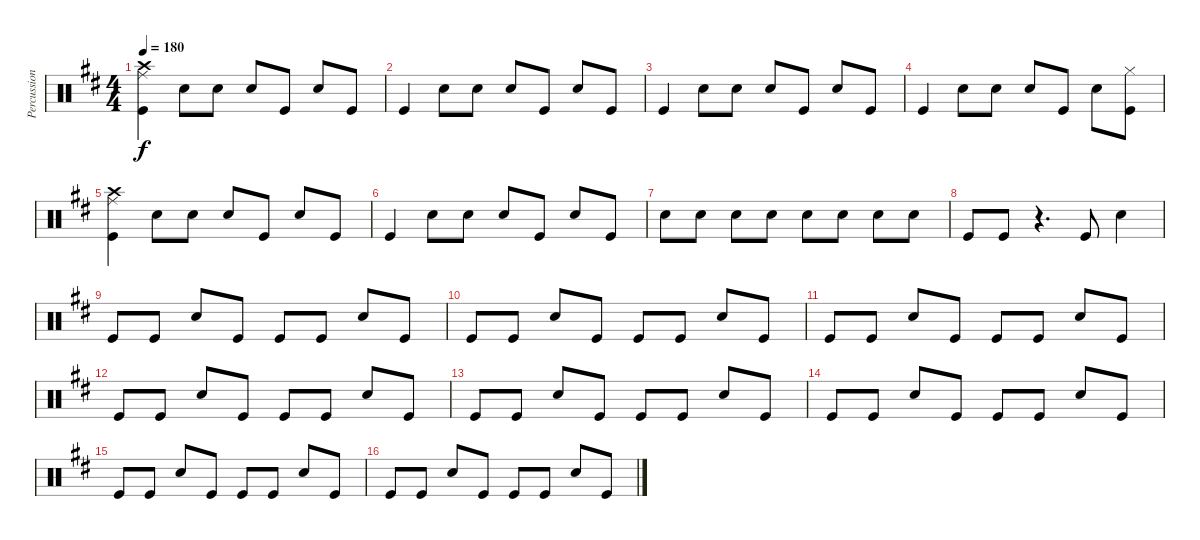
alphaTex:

\track ("Percussion" "Percussion") {instrument percussion}
\staff {score}
\articulation defaults
\ts (4 4)
\tempo 180
\clef neutral
\ks d
("Kick (hit)" "Crash high (hit)" "Ride (middle)").4{dy f} "Snare (hit) 2".8 "Snare (hit) 2".8 "Snare (hit) 2".8 "Kick (hit)".8 "Snare (hit) 2".8 "Kick (hit)".8 |
"Kick (hit)".4 "Snare (hit) 2".8 "Snare (hit) 2".8 "Snare (hit) 2".8 "Kick (hit)".8 "Snare (hit) 2".8 "Kick (hit)".8 |
"Kick (hit)".4 "Snare (hit) 2".8 "Snare (hit) 2".8 "Snare (hit) 2".8 "Kick (hit)".8 "Snare (hit) 2".8 "Kick (hit)".8 |
"Kick (hit)".4 "Snare (hit) 2".8 "Snare (hit) 2".8 "Snare (hit) 2".8 "Kick (hit)".8 "Snare (hit) 2".8 ("Kick (hit)" "Hi-Hat (closed)").8 |
("Kick (hit)" "Crash high (hit)" "Ride (middle)").4 "Snare (hit) 2".8 "Snare (hit) 2".8 "Snare (hit) 2".8 "Kick (hit)".8 "Snare (hit) 2".8 "Kick (hit)".8 |
"Kick (hit)".4 "Snare (hit) 2".8 "Snare (hit) 2".8 "Snare (hit) 2".8 "Kick (hit)".8 "Snare (hit) 2".8 "Kick (hit)".8 |
"Snare (hit) 2".8 "Snare (hit) 2".8 "Snare (hit) 2".8 "Snare (hit) 2".8 "Snare (hit) 2".8 "Snare (hit) 2".8 "Snare (hit) 2".8 "Snare (hit) 2".8 |
"Kick (hit)".8 "Kick (hit)".8 r.4{d} "Kick (hit)".8 "Snare (hit) 2".4 |
"Kick (hit)".8 "Kick (hit)".8 "Snare (hit) 2".8 "Kick (hit)".8 "Kick (hit)".8 "Kick (hit)".8 "Snare (hit) 2".8 "Kick (hit)".8 |
"Kick (hit)".8 "Kick (hit)".8 "Snare (hit) 2".8 "Kick (hit)".8 "Kick (hit)".8 "Kick (hit)".8 "Snare (hit) 2".8 "Kick (hit)".8 |
"Kick (hit)".8 "Kick (hit)".8 "Snare (hit) 2".8 "Kick (hit)".8 "Kick (hit)".8 "Kick (hit)".8 "Snare (hit) 2".8 "Kick (hit)".8 |
"Kick (hit)".8 "Kick (hit)".8 "Snare (hit) 2".8 "Kick (hit)".8 "Kick (hit)".8 "Kick (hit)".8 "Snare (hit) 2".8 "Kick (hit)".8 |
"Kick (hit)".8 "Kick (hit)".8 "Snare (hit) 2".8 "Kick (hit)".8 "Kick (hit)".8 "Kick (hit)".8 "Snare (hit) 2".8 "Kick (hit)".8 |
"Kick (hit)".8 "Kick (hit)".8 "Snare (hit) 2".8 "Kick (hit)".8 "Kick (hit)".8 "Kick (hit)".8 "Snare (hit) 2".8 "Kick (hit)".8 |
"Kick (hit)".8 "Kick (hit)".8 "Snare (hit) 2".8 "Kick (hit)".8 "Kick (hit)".8 "Kick (hit)".8 "Snare (hit) 2".8 "Kick (hit)".8 |
"Kick (hit)".8 "Kick (hit)".8 "Snare (hit) 2".8 "Kick (hit)".8 "Kick (hit)".8 "Kick (hit)".8 "Snare (hit) 2".8 "Kick (hit)".8
